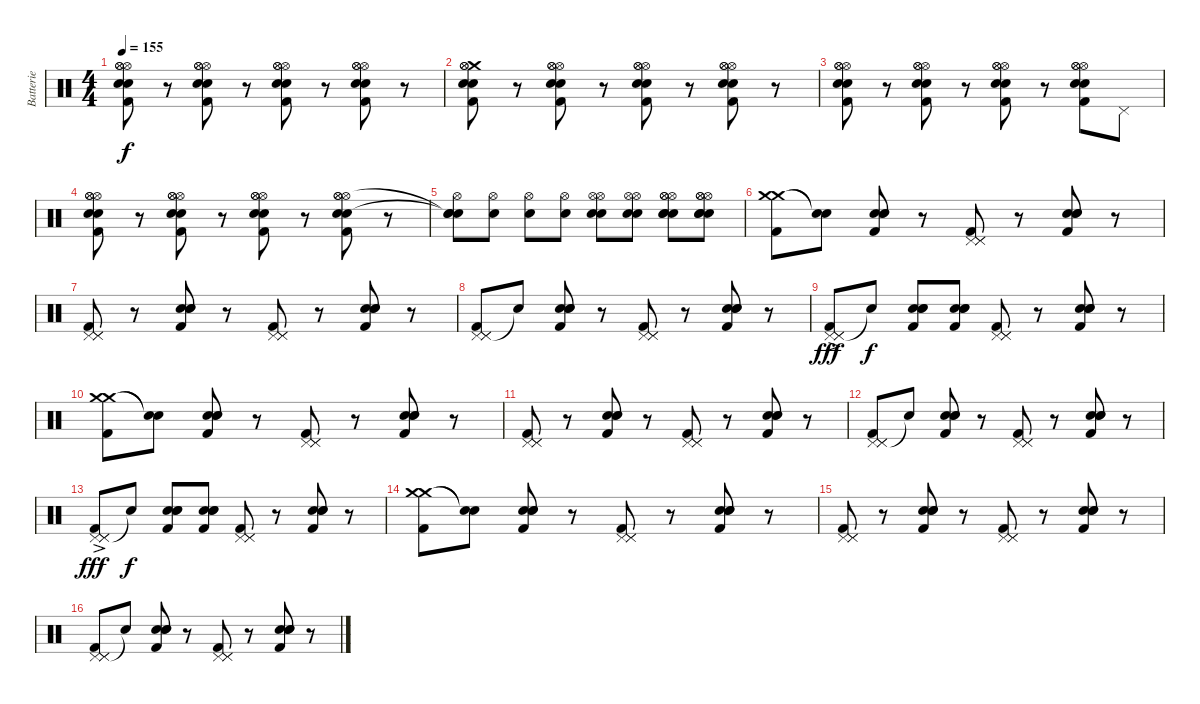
\track ("Batterie" "Batterie") {instrument percussion}
\staff {score}
\articulation defaults
\ts (4 4)
\tempo 155
\clef neutral
\ks c
("Hi-Hat (open)" "Hi-Hat (open)" "Hi-Hat (open)" "Electric Snare (hit)" "Electric Snare (hit)" "Kick (hit) 2").8{dy f} r.8 ("Hi-Hat (open)" "Hi-Hat (open)" "Hi-Hat (open)" "Electric Snare (hit)" "Electric Snare (hit)" "Kick (hit) 2").8 r.8 ("Hi-Hat (open)" "Hi-Hat (open)" "Hi-Hat (open)" "Electric Snare (hit)" "Electric Snare (hit)" "Kick (hit) 2").8 r.8 ("Hi-Hat (open)" "Hi-Hat (open)" "Hi-Hat (open)" "Electric Snare (hit)" "Electric Snare (hit)" "Kick (hit) 2").8 r.8 |
("Crash medium (hit)" "Hi-Hat (open)" "Hi-Hat (open)" "Electric Snare (hit)" "Electric Snare (hit)" "Kick (hit) 2").8 r.8 ("Hi-Hat (open)" "Hi-Hat (open)" "Hi-Hat (open)" "Electric Snare (hit)" "Electric Snare (hit)" "Kick (hit) 2").8 r.8 ("Hi-Hat (open)" "Hi-Hat (open)" "Hi-Hat (open)" "Electric Snare (hit)" "Electric Snare (hit)" "Kick (hit) 2").8 r.8 ("Hi-Hat (open)" "Hi-Hat (open)" "Hi-Hat (open)" "Electric Snare (hit)" "Electric Snare (hit)" "Kick (hit) 2").8 r.8 |
("Hi-Hat (open)" "Hi-Hat (open)" "Hi-Hat (open)" "Electric Snare (hit)" "Electric Snare (hit)" "Kick (hit) 2").8 r.8 ("Hi-Hat (open)" "Hi-Hat (open)" "Hi-Hat (open)" "Electric Snare (hit)" "Electric Snare (hit)" "Kick (hit) 2").8 r.8 ("Hi-Hat (open)" "Hi-Hat (open)" "Hi-Hat (open)" "Electric Snare (hit)" "Electric Snare (hit)" "Kick (hit) 2").8 r.8 ("Hi-Hat (open)" "Hi-Hat (open)" "Hi-Hat (open)" "Electric Snare (hit)" "Electric Snare (hit)" "Kick (hit) 2").8 "Pedal Hi-Hat (hit)".8 |
("Hi-Hat (open)" "Hi-Hat (open)" "Hi-Hat (open)" "Electric Snare (hit)" "Electric Snare (hit)" "Kick (hit) 2").8 r.8 ("Hi-Hat (open)" "Hi-Hat (open)" "Hi-Hat (open)" "Electric Snare (hit)" "Electric Snare (hit)" "Kick (hit) 2").8 r.8 ("Hi-Hat (open)" "Hi-Hat (open)" "Hi-Hat (open)" "Electric Snare (hit)" "Electric Snare (hit)" "Kick (hit) 2").8 r.8 ("Hi-Hat (open)" "Hi-Hat (open)" "Hi-Hat (open)" "Electric Snare (hit)" "Electric Snare (hit)" "Kick (hit) 2").8 r.8 |
("Hi-Hat (open)" "Electric Snare (hit)" "Snare (hit)"{t} "Snare (hit)"{t}).8 ("Hi-Hat (open)" "Electric Snare (hit)").8 ("Hi-Hat (open)" "Electric Snare (hit)").8 ("Hi-Hat (open)" "Electric Snare (hit)").8 ("Hi-Hat (open)" "Hi-Hat (open)" "Electric Snare (hit)" "Electric Snare (hit)").8 ("Hi-Hat (open)" "Hi-Hat (open)" "Electric Snare (hit)" "Electric Snare (hit)").8 ("Hi-Hat (open)" "Hi-Hat (open)" "Hi-Hat (open)" "Electric Snare (hit)" "Electric Snare (hit)" "Electric Snare (hit)").8 ("Hi-Hat (open)" "Hi-Hat (open)" "Hi-Hat (open)" "Electric Snare (hit)" "Electric Snare (hit)" "Electric Snare (hit)").8 |
("Crash medium (hit)" "Crash medium (hit)" "Kick (hit) 2").8 ("Snare (hit)"{t} "Snare (hit)"{t}).8 ("Electric Snare (hit)" "Electric Snare (hit)" "Electric Snare (hit)" "Kick (hit) 2").8 r.8 ("Pedal Hi-Hat (hit)" "Pedal Hi-Hat (hit)" "Pedal Hi-Hat (hit)" "Kick (hit) 2").8 r.8 ("Electric Snare (hit)" "Electric Snare (hit)" "Electric Snare (hit)" "Kick (hit) 2").8 r.8 |
("Pedal Hi-Hat (hit)" "Pedal Hi-Hat (hit)" "Pedal Hi-Hat (hit)" "Kick (hit) 2").8 r.8 ("Electric Snare (hit)" "Electric Snare (hit)" "Electric Snare (hit)" "Kick (hit) 2").8 r.8 ("Pedal Hi-Hat (hit)" "Pedal Hi-Hat (hit)" "Pedal Hi-Hat (hit)" "Kick (hit) 2").8 r.8 ("Electric Snare (hit)" "Electric Snare (hit)" "Electric Snare (hit)" "Kick (hit) 2").8 r.8 |
("Pedal Hi-Hat (hit)" "Pedal Hi-Hat (hit)" "Pedal Hi-Hat (hit)" "Kick (hit) 2").8 "Snare (hit)"{t}.8 ("Electric Snare (hit)" "Electric Snare (hit)" "Electric Snare (hit)" "Kick (hit) 2").8 r.8 ("Pedal Hi-Hat (hit)" "Pedal Hi-Hat (hit)" "Pedal Hi-Hat (hit)" "Kick (hit) 2").8 r.8 ("Electric Snare (hit)" "Electric Snare (hit)" "Electric Snare (hit)" "Kick (hit) 2").8 r.8 |
("Pedal Hi-Hat (hit)"{ac} "Pedal Hi-Hat (hit)" "Pedal Hi-Hat (hit)" "Kick (hit) 2").8{dy fff} "Snare (hit)"{t}.8{dy f} ("Electric Snare (hit)" "Electric Snare (hit)" "Electric Snare (hit)" "Kick (hit) 2").8 ("Electric Snare (hit)" "Electric Snare (hit)" "Electric Snare (hit)" "Kick (hit) 2").8 ("Pedal Hi-Hat (hit)" "Pedal Hi-Hat (hit)" "Pedal Hi-Hat (hit)" "Kick (hit) 2").8 r.8 ("Electric Snare (hit)" "Electric Snare (hit)" "Electric Snare (hit)" "Kick (hit) 2").8 r.8 |
("Crash medium (hit)" "Crash medium (hit)" "Kick (hit) 2").8 ("Snare (hit)"{t} "Snare (hit)"{t}).8 ("Electric Snare (hit)" "Electric Snare (hit)" "Electric Snare (hit)" "Kick (hit) 2").8 r.8 ("Pedal Hi-Hat (hit)" "Pedal Hi-Hat (hit)" "Pedal Hi-Hat (hit)" "Kick (hit) 2").8 r.8 ("Electric Snare (hit)" "Electric Snare (hit)" "Electric Snare (hit)" "Kick (hit) 2").8 r.8 |
("Pedal Hi-Hat (hit)" "Pedal Hi-Hat (hit)" "Pedal Hi-Hat (hit)" "Kick (hit) 2").8 r.8 ("Electric Snare (hit)" "Electric Snare (hit)" "Electric Snare (hit)" "Kick (hit) 2").8 r.8 ("Pedal Hi-Hat (hit)" "Pedal Hi-Hat (hit)" "Pedal Hi-Hat (hit)" "Kick (hit) 2").8 r.8 ("Electric Snare (hit)" "Electric Snare (hit)" "Electric Snare (hit)" "Kick (hit) 2").8 r.8 |
("Pedal Hi-Hat (hit)" "Pedal Hi-Hat (hit)" "Pedal Hi-Hat (hit)" "Kick (hit) 2").8 "Snare (hit)"{t}.8 ("Electric Snare (hit)" "Electric Snare (hit)" "Electric Snare (hit)" "Kick (hit) 2").8 r.8 ("Pedal Hi-Hat (hit)" "Pedal Hi-Hat (hit)" "Pedal Hi-Hat (hit)" "Kick (hit) 2").8 r.8 ("Electric Snare (hit)" "Electric Snare (hit)" "Electric Snare (hit)" "Kick (hit) 2").8 r.8 |
("Pedal Hi-Hat (hit)"{ac} "Pedal Hi-Hat (hit)" "Pedal Hi-Hat (hit)" "Kick (hit) 2").8{dy fff} "Snare (hit)"{t}.8{dy f} ("Electric Snare (hit)" "Electric Snare (hit)" "Electric Snare (hit)" "Kick (hit) 2").8 ("Electric Snare (hit)" "Electric Snare (hit)" "Electric Snare (hit)" "Kick (hit) 2").8 ("Pedal Hi-Hat (hit)" "Pedal Hi-Hat (hit)" "Pedal Hi-Hat (hit)" "Kick (hit) 2").8 r.8 ("Electric Snare (hit)" "Electric Snare (hit)" "Electric Snare (hit)" "Kick (hit) 2").8 r.8 |
("Crash medium (hit)" "Crash medium (hit)" "Kick (hit) 2").8 ("Snare (hit)"{t} "Snare (hit)"{t}).8 ("Electric Snare (hit)" "Electric Snare (hit)" "Electric Snare (hit)" "Kick (hit) 2").8 r.8 ("Pedal Hi-Hat (hit)" "Pedal Hi-Hat (hit)" "Pedal Hi-Hat (hit)" "Kick (hit) 2").8 r.8 ("Electric Snare (hit)" "Electric Snare (hit)" "Electric Snare (hit)" "Kick (hit) 2").8 r.8 |
("Pedal Hi-Hat (hit)" "Pedal Hi-Hat (hit)" "Pedal Hi-Hat (hit)" "Kick (hit) 2").8 r.8 ("Electric Snare (hit)" "Electric Snare (hit)" "Electric Snare (hit)" "Kick (hit) 2").8 r.8 ("Pedal Hi-Hat (hit)" "Pedal Hi-Hat (hit)" "Pedal Hi-Hat (hit)" "Kick (hit) 2").8 r.8 ("Electric Snare (hit)" "Electric Snare (hit)" "Electric Snare (hit)" "Kick (hit) 2").8 r.8 |
("Pedal Hi-Hat (hit)" "Pedal Hi-Hat (hit)" "Pedal Hi-Hat (hit)" "Kick (hit) 2").8 "Snare (hit)"{t}.8 ("Electric Snare (hit)" "Electric Snare (hit)" "Electric Snare (hit)" "Kick (hit) 2").8 r.8 ("Pedal Hi-Hat (hit)" "Pedal Hi-Hat (hit)" "Pedal Hi-Hat (hit)" "Kick (hit) 2").8 r.8 ("Electric Snare (hit)" "Electric Snare (hit)" "Electric Snare (hit)" "Kick (hit) 2").8 r.8
